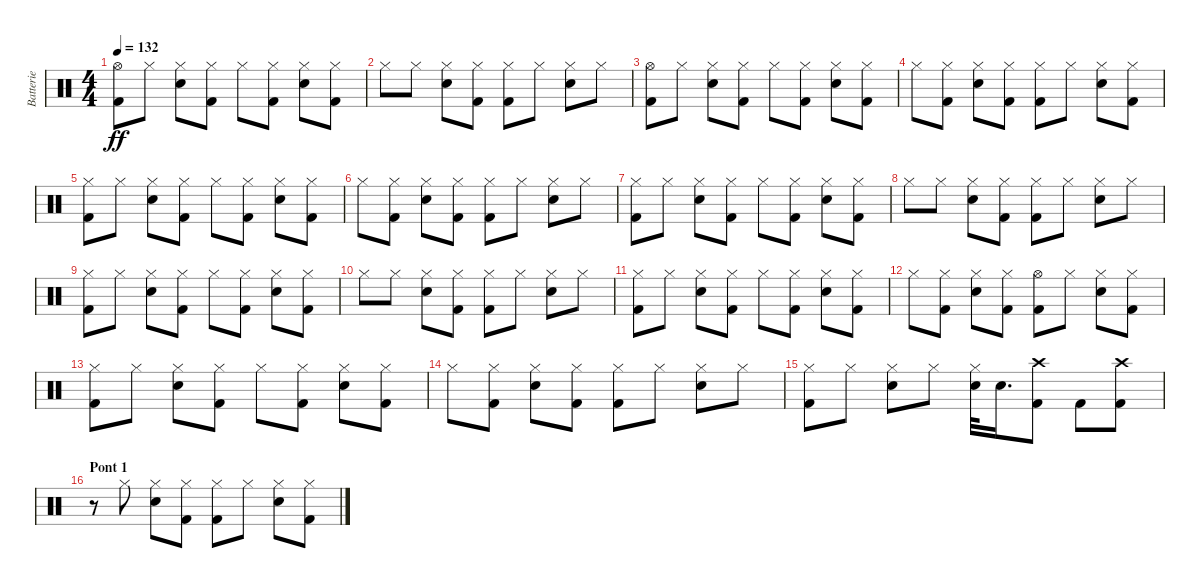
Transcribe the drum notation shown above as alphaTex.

\track ("Batterie" "Batterie") {instrument percussion}
\staff {score}
\articulation defaults
\ts (4 4)
\tempo 132
\clef neutral
\ks c
("Kick (hit) 2" "Hi-Hat (open)").8{dy ff} "Hi-Hat (closed)".8 ("Snare (hit) 2" "Hi-Hat (closed)").8 ("Kick (hit) 2" "Hi-Hat (closed)").8 "Hi-Hat (closed)".8 ("Kick (hit) 2" "Hi-Hat (closed)").8 ("Snare (hit) 2" "Hi-Hat (closed)").8 ("Kick (hit) 2" "Hi-Hat (closed)").8 |
"Hi-Hat (closed)".8 "Hi-Hat (closed)".8 ("Snare (hit) 2" "Hi-Hat (closed)").8 ("Kick (hit) 2" "Hi-Hat (closed)").8 ("Kick (hit) 2" "Hi-Hat (closed)").8 "Hi-Hat (closed)".8 ("Snare (hit) 2" "Hi-Hat (closed)").8 "Hi-Hat (closed)".8 |
("Kick (hit) 2" "Hi-Hat (open)").8 "Hi-Hat (closed)".8 ("Snare (hit) 2" "Hi-Hat (closed)").8 ("Kick (hit) 2" "Hi-Hat (closed)").8 "Hi-Hat (closed)".8 ("Kick (hit) 2" "Hi-Hat (closed)").8 ("Snare (hit) 2" "Hi-Hat (closed)").8 ("Kick (hit) 2" "Hi-Hat (closed)").8 |
"Hi-Hat (closed)".8 ("Kick (hit) 2" "Hi-Hat (closed)").8 ("Snare (hit) 2" "Hi-Hat (closed)").8 ("Kick (hit) 2" "Hi-Hat (closed)").8 ("Kick (hit) 2" "Hi-Hat (closed)").8 "Hi-Hat (closed)".8 ("Snare (hit) 2" "Hi-Hat (closed)").8 ("Kick (hit) 2" "Hi-Hat (closed)").8 |
("Kick (hit) 2" "Hi-Hat (closed)").8 "Hi-Hat (closed)".8 ("Snare (hit) 2" "Hi-Hat (closed)").8 ("Kick (hit) 2" "Hi-Hat (closed)").8 "Hi-Hat (closed)".8 ("Kick (hit) 2" "Hi-Hat (closed)").8 ("Snare (hit) 2" "Hi-Hat (closed)").8 ("Kick (hit) 2" "Hi-Hat (closed)").8 |
"Hi-Hat (closed)".8 ("Kick (hit) 2" "Hi-Hat (closed)").8 ("Snare (hit) 2" "Hi-Hat (closed)").8 ("Kick (hit) 2" "Hi-Hat (closed)").8 ("Kick (hit) 2" "Hi-Hat (closed)").8 "Hi-Hat (closed)".8 ("Snare (hit) 2" "Hi-Hat (closed)").8 "Hi-Hat (closed)".8 |
("Kick (hit) 2" "Hi-Hat (closed)").8 "Hi-Hat (closed)".8 ("Snare (hit) 2" "Hi-Hat (closed)").8 ("Kick (hit) 2" "Hi-Hat (closed)").8 "Hi-Hat (closed)".8 ("Kick (hit) 2" "Hi-Hat (closed)").8 ("Snare (hit) 2" "Hi-Hat (closed)").8 ("Kick (hit) 2" "Hi-Hat (closed)").8 |
"Hi-Hat (closed)".8 "Hi-Hat (closed)".8 ("Snare (hit) 2" "Hi-Hat (closed)").8 ("Kick (hit) 2" "Hi-Hat (closed)").8 ("Kick (hit) 2" "Hi-Hat (closed)").8 "Hi-Hat (closed)".8 ("Snare (hit) 2" "Hi-Hat (closed)").8 "Hi-Hat (closed)".8 |
("Kick (hit) 2" "Hi-Hat (closed)").8 "Hi-Hat (closed)".8 ("Snare (hit) 2" "Hi-Hat (closed)").8 ("Kick (hit) 2" "Hi-Hat (closed)").8 "Hi-Hat (closed)".8 ("Kick (hit) 2" "Hi-Hat (closed)").8 ("Snare (hit) 2" "Hi-Hat (closed)").8 ("Kick (hit) 2" "Hi-Hat (closed)").8 |
"Hi-Hat (closed)".8 "Hi-Hat (closed)".8 ("Snare (hit) 2" "Hi-Hat (closed)").8 ("Kick (hit) 2" "Hi-Hat (closed)").8 ("Kick (hit) 2" "Hi-Hat (closed)").8 "Hi-Hat (closed)".8 ("Snare (hit) 2" "Hi-Hat (closed)").8 "Hi-Hat (closed)".8 |
("Kick (hit) 2" "Hi-Hat (closed)").8 "Hi-Hat (closed)".8 ("Snare (hit) 2" "Hi-Hat (closed)").8 ("Kick (hit) 2" "Hi-Hat (closed)").8 "Hi-Hat (closed)".8 ("Kick (hit) 2" "Hi-Hat (closed)").8 ("Snare (hit) 2" "Hi-Hat (closed)").8 ("Kick (hit) 2" "Hi-Hat (closed)").8 |
"Hi-Hat (closed)".8 ("Kick (hit) 2" "Hi-Hat (closed)").8 ("Snare (hit) 2" "Hi-Hat (closed)").8 ("Kick (hit) 2" "Hi-Hat (closed)").8 ("Kick (hit) 2" "Hi-Hat (open)").8 "Hi-Hat (closed)".8 ("Snare (hit) 2" "Hi-Hat (closed)").8 ("Kick (hit) 2" "Hi-Hat (closed)").8 |
("Kick (hit) 2" "Hi-Hat (closed)").8 "Hi-Hat (closed)".8 ("Snare (hit) 2" "Hi-Hat (closed)").8 ("Kick (hit) 2" "Hi-Hat (closed)").8 "Hi-Hat (closed)".8 ("Kick (hit) 2" "Hi-Hat (closed)").8 ("Snare (hit) 2" "Hi-Hat (closed)").8 ("Kick (hit) 2" "Hi-Hat (closed)").8 |
"Hi-Hat (closed)".8 ("Kick (hit) 2" "Hi-Hat (closed)").8 ("Snare (hit) 2" "Hi-Hat (closed)").8 ("Kick (hit) 2" "Hi-Hat (closed)").8 ("Kick (hit) 2" "Hi-Hat (closed)").8 "Hi-Hat (closed)".8 ("Snare (hit) 2" "Hi-Hat (closed)").8 "Hi-Hat (closed)".8 |
("Kick (hit) 2" "Hi-Hat (closed)").8 "Hi-Hat (closed)".8 ("Snare (hit) 2" "Hi-Hat (closed)").8 "Hi-Hat (closed)".8 ("Snare (hit) 2" "Hi-Hat (closed)").32 "Snare (hit) 2".16{d} ("Kick (hit) 2" "Crash high (hit)").8 "Kick (hit) 2".8 ("Kick (hit) 2" "Crash high (hit)").8 |
\section ("" "Pont 1")
r.8 "Hi-Hat (closed)".8 ("Snare (hit) 2" "Hi-Hat (closed)").8 ("Kick (hit) 2" "Hi-Hat (closed)").8 ("Kick (hit) 2" "Hi-Hat (closed)").8 "Hi-Hat (closed)".8 ("Snare (hit) 2" "Hi-Hat (closed)").8 ("Kick (hit) 2" "Hi-Hat (closed)").8
